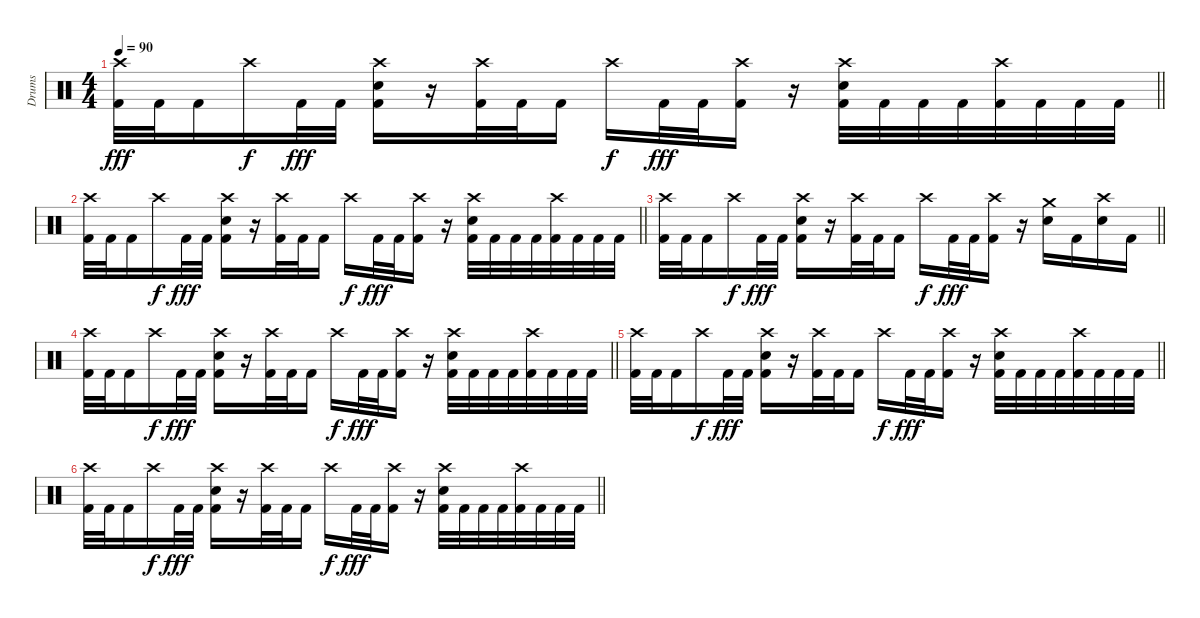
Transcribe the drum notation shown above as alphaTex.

\track ("Drums" "Drums") {instrument percussion}
\staff {score}
\articulation defaults
\ts (4 4)
\tempo 90
\clef neutral
\barLineRight lightlight
\ks c
("Crash high (hit)" "Kick (hit) 2").32{dy fff} "Kick (hit) 2".32 "Kick (hit) 2".16 "Crash high (hit)".16{dy f} "Kick (hit) 2".32{dy fff} "Kick (hit) 2".32 ("Crash high (hit)" "Electric Snare (hit)" "Kick (hit) 2").16 r.16 ("Crash high (hit)" "Kick (hit) 2").32 "Kick (hit) 2".32 "Kick (hit) 2".16 "Crash high (hit)".16{dy f} "Kick (hit) 2".32{dy fff} "Kick (hit) 2".32 ("Crash high (hit)" "Kick (hit) 2").16 r.16 ("Crash high (hit)" "Electric Snare (hit)" "Kick (hit) 2").32 "Kick (hit) 2".32 "Kick (hit) 2".32 "Kick (hit) 2".32 ("Crash high (hit)" "Kick (hit) 2").32 "Kick (hit) 2".32 "Kick (hit) 2".32 "Kick (hit) 2".32 |
\barLineRight lightlight
("Crash high (hit)" "Kick (hit) 2").32 "Kick (hit) 2".32 "Kick (hit) 2".16 "Crash high (hit)".16{dy f} "Kick (hit) 2".32{dy fff} "Kick (hit) 2".32 ("Crash high (hit)" "Electric Snare (hit)" "Kick (hit) 2").16 r.16 ("Crash high (hit)" "Kick (hit) 2").32 "Kick (hit) 2".32 "Kick (hit) 2".16 "Crash high (hit)".16{dy f} "Kick (hit) 2".32{dy fff} "Kick (hit) 2".32 ("Crash high (hit)" "Kick (hit) 2").16 r.16 ("Crash high (hit)" "Electric Snare (hit)" "Kick (hit) 2").32 "Kick (hit) 2".32 "Kick (hit) 2".32 "Kick (hit) 2".32 ("Crash high (hit)" "Kick (hit) 2").32 "Kick (hit) 2".32 "Kick (hit) 2".32 "Kick (hit) 2".32 |
\barLineRight lightlight
("Crash high (hit)" "Kick (hit) 2").32 "Kick (hit) 2".32 "Kick (hit) 2".16 "Crash high (hit)".16{dy f} "Kick (hit) 2".32{dy fff} "Kick (hit) 2".32 ("Crash high (hit)" "Electric Snare (hit)" "Kick (hit) 2").16 r.16 ("Crash high (hit)" "Kick (hit) 2").32 "Kick (hit) 2".32 "Kick (hit) 2".16 "Crash high (hit)".16{dy f} "Kick (hit) 2".32{dy fff} "Kick (hit) 2".32 ("Crash high (hit)" "Kick (hit) 2").16 r.16 ("Crash medium (hit)" "Electric Snare (hit)").16 "Kick (hit) 2".16 ("Crash high (hit)" "Electric Snare (hit)").16 "Kick (hit) 2".16 |
\barLineRight lightlight
("Crash high (hit)" "Kick (hit) 2").32 "Kick (hit) 2".32 "Kick (hit) 2".16 "Crash high (hit)".16{dy f} "Kick (hit) 2".32{dy fff} "Kick (hit) 2".32 ("Crash high (hit)" "Electric Snare (hit)" "Kick (hit) 2").16 r.16 ("Crash high (hit)" "Kick (hit) 2").32 "Kick (hit) 2".32 "Kick (hit) 2".16 "Crash high (hit)".16{dy f} "Kick (hit) 2".32{dy fff} "Kick (hit) 2".32 ("Crash high (hit)" "Kick (hit) 2").16 r.16 ("Crash high (hit)" "Electric Snare (hit)" "Kick (hit) 2").32 "Kick (hit) 2".32 "Kick (hit) 2".32 "Kick (hit) 2".32 ("Crash high (hit)" "Kick (hit) 2").32 "Kick (hit) 2".32 "Kick (hit) 2".32 "Kick (hit) 2".32 |
\barLineRight lightlight
("Crash high (hit)" "Kick (hit) 2").32 "Kick (hit) 2".32 "Kick (hit) 2".16 "Crash high (hit)".16{dy f} "Kick (hit) 2".32{dy fff} "Kick (hit) 2".32 ("Crash high (hit)" "Electric Snare (hit)" "Kick (hit) 2").16 r.16 ("Crash high (hit)" "Kick (hit) 2").32 "Kick (hit) 2".32 "Kick (hit) 2".16 "Crash high (hit)".16{dy f} "Kick (hit) 2".32{dy fff} "Kick (hit) 2".32 ("Crash high (hit)" "Kick (hit) 2").16 r.16 ("Crash high (hit)" "Electric Snare (hit)" "Kick (hit) 2").32 "Kick (hit) 2".32 "Kick (hit) 2".32 "Kick (hit) 2".32 ("Crash high (hit)" "Kick (hit) 2").32 "Kick (hit) 2".32 "Kick (hit) 2".32 "Kick (hit) 2".32 |
\barLineRight lightlight
("Crash high (hit)" "Kick (hit) 2").32 "Kick (hit) 2".32 "Kick (hit) 2".16 "Crash high (hit)".16{dy f} "Kick (hit) 2".32{dy fff} "Kick (hit) 2".32 ("Crash high (hit)" "Electric Snare (hit)" "Kick (hit) 2").16 r.16 ("Crash high (hit)" "Kick (hit) 2").32 "Kick (hit) 2".32 "Kick (hit) 2".16 "Crash high (hit)".16{dy f} "Kick (hit) 2".32{dy fff} "Kick (hit) 2".32 ("Crash high (hit)" "Kick (hit) 2").16 r.16 ("Crash high (hit)" "Electric Snare (hit)" "Kick (hit) 2").32 "Kick (hit) 2".32 "Kick (hit) 2".32 "Kick (hit) 2".32 ("Crash high (hit)" "Kick (hit) 2").32 "Kick (hit) 2".32 "Kick (hit) 2".32 "Kick (hit) 2".32
